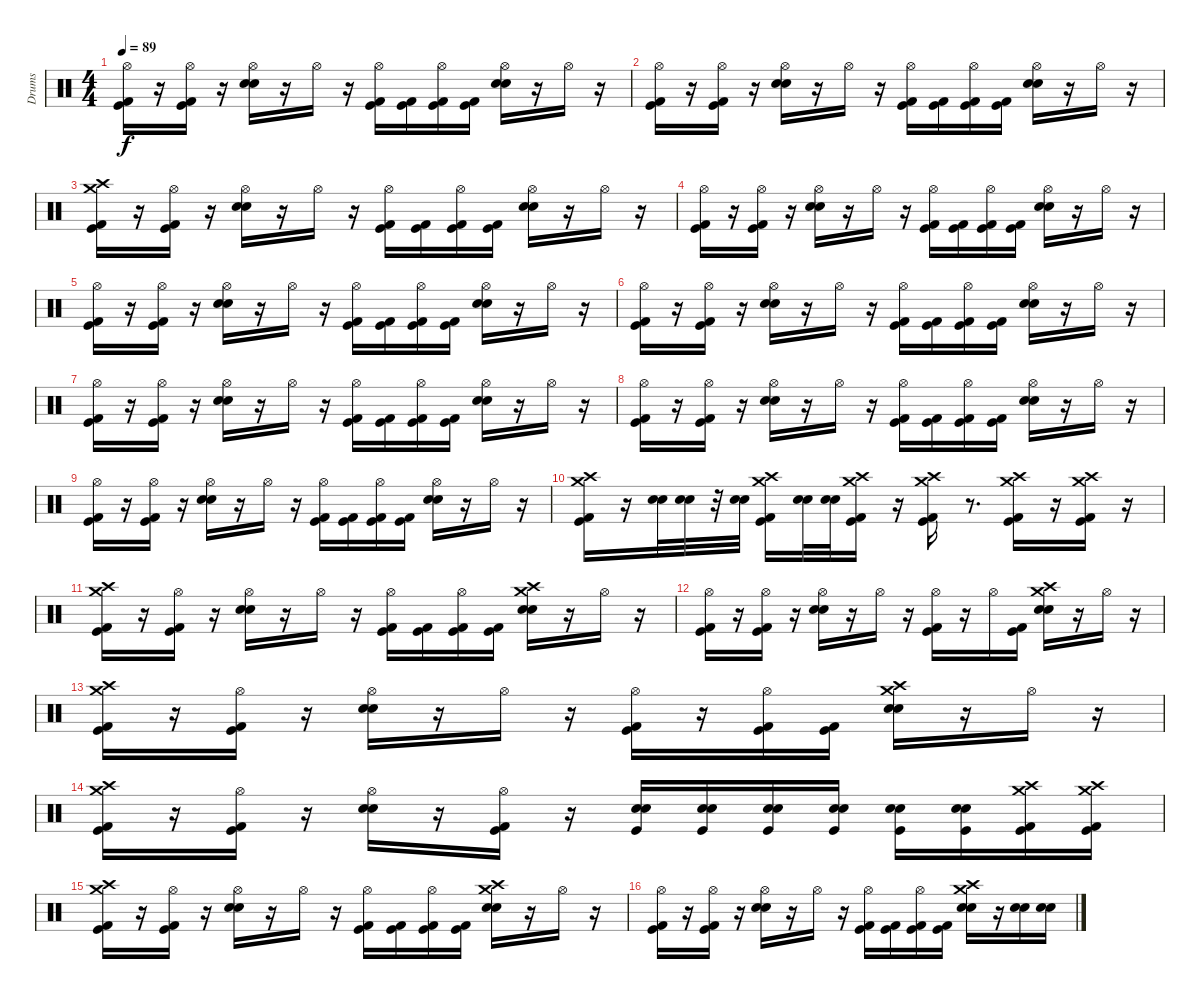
\track ("Drums" "Drums") {instrument percussion}
\staff {score}
\articulation defaults
\ts (4 4)
\tempo 89
\clef neutral
\ks c
("Hi-Hat (open)" "Kick (hit) 2" "Kick (hit)").16{dy f} r.16 ("Hi-Hat (open)" "Kick (hit) 2" "Kick (hit)").16 r.16 ("Hi-Hat (open)" "Electric Snare (hit)" "Snare (hit) 2").16 r.16 "Hi-Hat (open)".16 r.16 ("Hi-Hat (open)" "Kick (hit) 2" "Kick (hit)").16 ("Kick (hit) 2" "Kick (hit)").16 ("Hi-Hat (open)" "Kick (hit) 2" "Kick (hit)").16 ("Kick (hit) 2" "Kick (hit)").16 ("Hi-Hat (open)" "Electric Snare (hit)" "Snare (hit) 2").16 r.16 "Hi-Hat (open)".16 r.16 |
("Hi-Hat (open)" "Kick (hit) 2" "Kick (hit)").16 r.16 ("Hi-Hat (open)" "Kick (hit) 2" "Kick (hit)").16 r.16 ("Hi-Hat (open)" "Electric Snare (hit)" "Snare (hit) 2").16 r.16 "Hi-Hat (open)".16 r.16 ("Hi-Hat (open)" "Kick (hit) 2" "Kick (hit)").16 ("Kick (hit) 2" "Kick (hit)").16 ("Hi-Hat (open)" "Kick (hit) 2" "Kick (hit)").16 ("Kick (hit) 2" "Kick (hit)").16 ("Hi-Hat (open)" "Electric Snare (hit)" "Snare (hit) 2").16 r.16 "Hi-Hat (open)".16 r.16 |
("Crash high (hit)" "Crash medium (hit)" "Kick (hit) 2" "Kick (hit)").16 r.16 ("Hi-Hat (open)" "Kick (hit) 2" "Kick (hit)").16 r.16 ("Hi-Hat (open)" "Electric Snare (hit)" "Snare (hit) 2").16 r.16 "Hi-Hat (open)".16 r.16 ("Hi-Hat (open)" "Kick (hit) 2" "Kick (hit)").16 ("Kick (hit) 2" "Kick (hit)").16 ("Hi-Hat (open)" "Kick (hit) 2" "Kick (hit)").16 ("Kick (hit) 2" "Kick (hit)").16 ("Hi-Hat (open)" "Electric Snare (hit)" "Snare (hit) 2").16 r.16 "Hi-Hat (open)".16 r.16 |
("Hi-Hat (open)" "Kick (hit) 2" "Kick (hit)").16 r.16 ("Hi-Hat (open)" "Kick (hit) 2" "Kick (hit)").16 r.16 ("Hi-Hat (open)" "Electric Snare (hit)" "Snare (hit) 2").16 r.16 "Hi-Hat (open)".16 r.16 ("Hi-Hat (open)" "Kick (hit) 2" "Kick (hit)").16 ("Kick (hit) 2" "Kick (hit)").16 ("Hi-Hat (open)" "Kick (hit) 2" "Kick (hit)").16 ("Kick (hit) 2" "Kick (hit)").16 ("Hi-Hat (open)" "Electric Snare (hit)" "Snare (hit) 2").16 r.16 "Hi-Hat (open)".16 r.16 |
("Hi-Hat (open)" "Kick (hit) 2" "Kick (hit)").16 r.16 ("Hi-Hat (open)" "Kick (hit) 2" "Kick (hit)").16 r.16 ("Hi-Hat (open)" "Electric Snare (hit)" "Snare (hit) 2").16 r.16 "Hi-Hat (open)".16 r.16 ("Hi-Hat (open)" "Kick (hit) 2" "Kick (hit)").16 ("Kick (hit) 2" "Kick (hit)").16 ("Hi-Hat (open)" "Kick (hit) 2" "Kick (hit)").16 ("Kick (hit) 2" "Kick (hit)").16 ("Hi-Hat (open)" "Electric Snare (hit)" "Snare (hit) 2").16 r.16 "Hi-Hat (open)".16 r.16 |
("Hi-Hat (open)" "Kick (hit) 2" "Kick (hit)").16 r.16 ("Hi-Hat (open)" "Kick (hit) 2" "Kick (hit)").16 r.16 ("Hi-Hat (open)" "Electric Snare (hit)" "Snare (hit) 2").16 r.16 "Hi-Hat (open)".16 r.16 ("Hi-Hat (open)" "Kick (hit) 2" "Kick (hit)").16 ("Kick (hit) 2" "Kick (hit)").16 ("Hi-Hat (open)" "Kick (hit) 2" "Kick (hit)").16 ("Kick (hit) 2" "Kick (hit)").16 ("Hi-Hat (open)" "Electric Snare (hit)" "Snare (hit) 2").16 r.16 "Hi-Hat (open)".16 r.16 |
("Hi-Hat (open)" "Kick (hit) 2" "Kick (hit)").16 r.16 ("Hi-Hat (open)" "Kick (hit) 2" "Kick (hit)").16 r.16 ("Hi-Hat (open)" "Electric Snare (hit)" "Snare (hit) 2").16 r.16 "Hi-Hat (open)".16 r.16 ("Hi-Hat (open)" "Kick (hit) 2" "Kick (hit)").16 ("Kick (hit) 2" "Kick (hit)").16 ("Hi-Hat (open)" "Kick (hit) 2" "Kick (hit)").16 ("Kick (hit) 2" "Kick (hit)").16 ("Hi-Hat (open)" "Electric Snare (hit)" "Snare (hit) 2").16 r.16 "Hi-Hat (open)".16 r.16 |
("Hi-Hat (open)" "Kick (hit) 2" "Kick (hit)").16 r.16 ("Hi-Hat (open)" "Kick (hit) 2" "Kick (hit)").16 r.16 ("Hi-Hat (open)" "Electric Snare (hit)" "Snare (hit) 2").16 r.16 "Hi-Hat (open)".16 r.16 ("Hi-Hat (open)" "Kick (hit) 2" "Kick (hit)").16 ("Kick (hit) 2" "Kick (hit)").16 ("Hi-Hat (open)" "Kick (hit) 2" "Kick (hit)").16 ("Kick (hit) 2" "Kick (hit)").16 ("Hi-Hat (open)" "Electric Snare (hit)" "Snare (hit) 2").16 r.16 "Hi-Hat (open)".16 r.16 |
("Hi-Hat (open)" "Kick (hit) 2" "Kick (hit)").16 r.16 ("Hi-Hat (open)" "Kick (hit) 2" "Kick (hit)").16 r.16 ("Hi-Hat (open)" "Electric Snare (hit)" "Snare (hit) 2").16 r.16 "Hi-Hat (open)".16 r.16 ("Hi-Hat (open)" "Kick (hit) 2" "Kick (hit)").16 ("Kick (hit) 2" "Kick (hit)").16 ("Hi-Hat (open)" "Kick (hit) 2" "Kick (hit)").16 ("Kick (hit) 2" "Kick (hit)").16 ("Hi-Hat (open)" "Electric Snare (hit)" "Snare (hit) 2").16 r.16 "Hi-Hat (open)".16 r.16 |
("Crash high (hit)" "Crash medium (hit)" "Kick (hit) 2" "Kick (hit)").16{volume 16} r.16 ("Electric Snare (hit)" "Snare (hit) 2").32 ("Electric Snare (hit)" "Snare (hit) 2").32 r.32 ("Electric Snare (hit)" "Snare (hit) 2").32 ("Crash high (hit)" "Crash medium (hit)" "Kick (hit) 2" "Kick (hit)").16 ("Electric Snare (hit)" "Snare (hit) 2").32 ("Electric Snare (hit)" "Snare (hit) 2").32 ("Kick (hit) 2" "Kick (hit)" "Crash high (hit)" "Crash medium (hit)").16 r.16 ("Crash medium (hit)" "Crash high (hit)" "Kick (hit) 2" "Kick (hit)").16 r.8{d} ("Crash medium (hit)" "Crash high (hit)" "Kick (hit) 2" "Kick (hit)").16 r.16 ("Crash medium (hit)" "Crash high (hit)" "Kick (hit) 2" "Kick (hit)").16 r.16 |
("Crash medium (hit)" "Crash high (hit)" "Kick (hit) 2" "Kick (hit)").16 r.16 ("Hi-Hat (open)" "Kick (hit) 2" "Kick (hit)").16 r.16 ("Hi-Hat (open)" "Electric Snare (hit)" "Snare (hit) 2").16 r.16 "Hi-Hat (open)".16 r.16 ("Hi-Hat (open)" "Kick (hit) 2" "Kick (hit)").16 ("Kick (hit) 2" "Kick (hit)").16 ("Hi-Hat (open)" "Kick (hit) 2" "Kick (hit)").16 ("Kick (hit) 2" "Kick (hit)").16 ("Crash medium (hit)" "Crash high (hit)" "Electric Snare (hit)" "Snare (hit) 2").16 r.16 "Hi-Hat (open)".16 r.16 |
("Hi-Hat (open)" "Kick (hit) 2" "Kick (hit)").16 r.16 ("Hi-Hat (open)" "Kick (hit) 2" "Kick (hit)").16 r.16 ("Hi-Hat (open)" "Electric Snare (hit)" "Snare (hit) 2").16 r.16 "Hi-Hat (open)".16 r.16 ("Hi-Hat (open)" "Kick (hit) 2" "Kick (hit)").16 r.16 "Hi-Hat (open)".16 ("Kick (hit) 2" "Kick (hit)").16 ("Crash medium (hit)" "Crash high (hit)" "Electric Snare (hit)" "Snare (hit) 2").16 r.16 "Hi-Hat (open)".16 r.16 |
("Crash medium (hit)" "Crash high (hit)" "Kick (hit) 2" "Kick (hit)").16 r.16 ("Hi-Hat (open)" "Kick (hit) 2" "Kick (hit)").16 r.16 ("Hi-Hat (open)" "Electric Snare (hit)" "Snare (hit) 2").16 r.16 "Hi-Hat (open)".16 r.16 ("Hi-Hat (open)" "Kick (hit) 2" "Kick (hit)").16 r.16 ("Hi-Hat (open)" "Kick (hit) 2" "Kick (hit)").16 ("Kick (hit) 2" "Kick (hit)").16 ("Crash medium (hit)" "Crash high (hit)" "Electric Snare (hit)" "Snare (hit) 2").16 r.16 "Hi-Hat (open)".16 r.16 |
("Crash medium (hit)" "Crash high (hit)" "Kick (hit) 2" "Kick (hit)").16 r.16 ("Hi-Hat (open)" "Kick (hit) 2" "Kick (hit)").16 r.16 ("Hi-Hat (open)" "Electric Snare (hit)" "Snare (hit) 2").16 r.16 ("Kick (hit) 2" "Kick (hit)" "Hi-Hat (open)").16 r.16 ("Electric Snare (hit)" "Snare (hit) 2" "Kick (hit)").16 ("Electric Snare (hit)" "Snare (hit) 2" "Kick (hit)").16 ("Electric Snare (hit)" "Snare (hit) 2" "Kick (hit)").16 ("Electric Snare (hit)" "Snare (hit) 2" "Kick (hit)").16 ("Kick (hit)" "Electric Snare (hit)" "Snare (hit) 2").16 ("Kick (hit)" "Electric Snare (hit)" "Snare (hit) 2").16 ("Crash high (hit)" "Crash medium (hit)" "Kick (hit) 2" "Kick (hit)").16 ("Kick (hit) 2" "Kick (hit)" "Crash high (hit)" "Crash medium (hit)").16 |
("Crash medium (hit)" "Crash high (hit)" "Kick (hit) 2" "Kick (hit)").16 r.16 ("Hi-Hat (open)" "Kick (hit) 2" "Kick (hit)").16 r.16 ("Hi-Hat (open)" "Electric Snare (hit)" "Snare (hit) 2").16 r.16 "Hi-Hat (open)".16 r.16 ("Hi-Hat (open)" "Kick (hit) 2" "Kick (hit)").16 ("Kick (hit) 2" "Kick (hit)").16 ("Hi-Hat (open)" "Kick (hit) 2" "Kick (hit)").16 ("Kick (hit) 2" "Kick (hit)").16 ("Crash medium (hit)" "Crash high (hit)" "Electric Snare (hit)" "Snare (hit) 2").16 r.16 "Hi-Hat (open)".16 r.16 |
("Hi-Hat (open)" "Kick (hit) 2" "Kick (hit)").16 r.16 ("Hi-Hat (open)" "Kick (hit) 2" "Kick (hit)").16 r.16 ("Hi-Hat (open)" "Electric Snare (hit)" "Snare (hit) 2").16 r.16 "Hi-Hat (open)".16 r.16 ("Hi-Hat (open)" "Kick (hit) 2" "Kick (hit)").16 ("Kick (hit) 2" "Kick (hit)").16 ("Hi-Hat (open)" "Kick (hit) 2" "Kick (hit)").16 ("Kick (hit) 2" "Kick (hit)").16 ("Crash medium (hit)" "Crash high (hit)" "Electric Snare (hit)" "Snare (hit) 2").16 r.16 ("Electric Snare (hit)" "Snare (hit) 2").16 ("Electric Snare (hit)" "Snare (hit) 2").16
